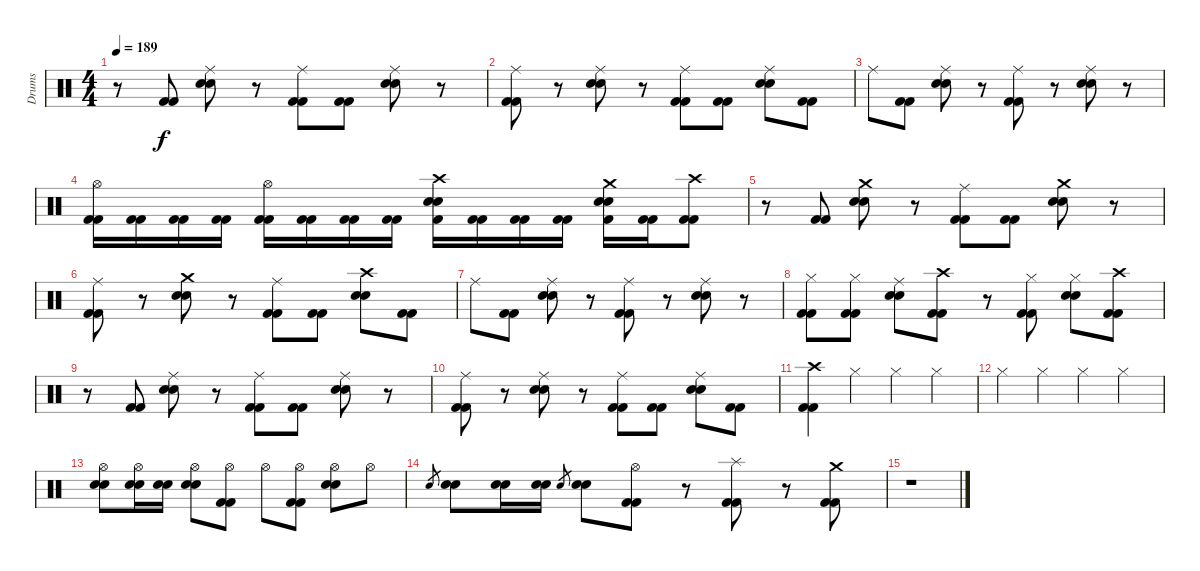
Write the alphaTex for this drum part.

\track ("Drums" "Drums") {instrument percussion}
\staff {score}
\articulation defaults
\ts (4 4)
\tempo 189
\clef neutral
\ks c
r.8{dy f} ("Kick (hit) 2" "Kick (hit) 2").8 ("Ride (middle)" "Snare (hit) 2" "Snare (hit) 2").8 r.8 ("Ride (middle)" "Kick (hit) 2" "Kick (hit) 2").8 ("Kick (hit) 2" "Kick (hit) 2").8 ("Ride (middle)" "Snare (hit) 2" "Snare (hit) 2").8 r.8 |
("Ride (middle)" "Kick (hit) 2" "Kick (hit) 2").8 r.8 ("Ride (middle)" "Snare (hit) 2" "Snare (hit) 2").8 r.8 ("Ride (middle)" "Kick (hit) 2" "Kick (hit) 2").8 ("Kick (hit) 2" "Kick (hit) 2").8 ("Ride (middle)" "Snare (hit) 2" "Snare (hit) 2").8 ("Kick (hit) 2" "Kick (hit) 2").8 |
"Ride (middle)".8 ("Kick (hit) 2" "Kick (hit) 2").8 ("Ride (middle)" "Snare (hit) 2" "Snare (hit) 2").8 r.8 ("Ride (middle)" "Kick (hit) 2" "Kick (hit) 2").8 r.8 ("Ride (middle)" "Snare (hit) 2" "Snare (hit) 2").8 r.8 |
("Hi-Hat (open)" "Kick (hit) 2" "Kick (hit) 2").16 ("Kick (hit) 2" "Kick (hit) 2").16 ("Kick (hit) 2" "Kick (hit) 2").16 ("Kick (hit) 2" "Kick (hit) 2").16 ("Hi-Hat (open)" "Kick (hit) 2" "Kick (hit) 2").16 ("Kick (hit) 2" "Kick (hit) 2").16 ("Kick (hit) 2" "Kick (hit) 2").16 ("Kick (hit) 2" "Kick (hit) 2").16 ("Crash high (hit)" "Snare (hit) 2" "Snare (hit) 2" "Kick (hit) 2").16 ("Kick (hit) 2" "Kick (hit) 2").16 ("Kick (hit) 2" "Kick (hit) 2").16 ("Kick (hit) 2" "Kick (hit) 2").16 ("Crash medium (hit)" "Snare (hit) 2" "Snare (hit) 2" "Kick (hit) 2").16 ("Kick (hit) 2" "Kick (hit) 2").16 ("Crash high (hit)" "Kick (hit) 2" "Kick (hit) 2").8 |
r.8 ("Kick (hit) 2" "Kick (hit) 2").8 ("Crash medium (hit)" "Snare (hit) 2" "Snare (hit) 2").8 r.8 ("Ride (middle)" "Kick (hit) 2" "Kick (hit) 2").8 ("Kick (hit) 2" "Kick (hit) 2").8 ("Crash medium (hit)" "Snare (hit) 2" "Snare (hit) 2").8 r.8 |
("Ride (middle)" "Kick (hit) 2" "Kick (hit) 2").8 r.8 ("Crash medium (hit)" "Snare (hit) 2" "Snare (hit) 2").8 r.8 ("Ride (middle)" "Kick (hit) 2" "Kick (hit) 2").8 ("Kick (hit) 2" "Kick (hit) 2").8 ("Crash high (hit)" "Snare (hit) 2" "Snare (hit) 2").8 ("Kick (hit) 2" "Kick (hit) 2").8 |
"Ride (middle)".8 ("Kick (hit) 2" "Kick (hit) 2").8 ("Ride (middle)" "Snare (hit) 2" "Snare (hit) 2").8 r.8 ("Ride (middle)" "Kick (hit) 2" "Kick (hit) 2").8 r.8 ("Ride (middle)" "Snare (hit) 2" "Snare (hit) 2").8 r.8 |
("Hi-Hat (closed)" "Kick (hit) 2" "Kick (hit) 2").8 ("Hi-Hat (closed)" "Kick (hit) 2" "Kick (hit) 2").8 ("Ride (middle)" "Snare (hit) 2" "Snare (hit) 2").8 ("Crash high (hit)" "Kick (hit) 2" "Kick (hit) 2").8 r.8 ("Hi-Hat (closed)" "Kick (hit) 2" "Kick (hit) 2").8 ("Hi-Hat (closed)" "Snare (hit) 2" "Snare (hit) 2").8 ("Crash high (hit)" "Kick (hit) 2" "Kick (hit) 2").8 |
r.8 ("Kick (hit) 2" "Kick (hit) 2").8 ("Ride (middle)" "Snare (hit) 2" "Snare (hit) 2").8 r.8 ("Ride (middle)" "Kick (hit) 2" "Kick (hit) 2").8 ("Kick (hit) 2" "Kick (hit) 2").8 ("Ride (middle)" "Snare (hit) 2" "Snare (hit) 2").8 r.8 |
("Ride (middle)" "Kick (hit) 2" "Kick (hit) 2").8 r.8 ("Ride (middle)" "Snare (hit) 2" "Snare (hit) 2").8 r.8 ("Ride (middle)" "Kick (hit) 2" "Kick (hit) 2").8 ("Kick (hit) 2" "Kick (hit) 2").8 ("Ride (middle)" "Snare (hit) 2" "Snare (hit) 2").8 ("Kick (hit) 2" "Kick (hit) 2").8 |
("Crash high (hit)" "Kick (hit) 2" "Kick (hit) 2").4 "Hi-Hat (closed)".4 "Hi-Hat (closed)".4 "Hi-Hat (closed)".4 |
"Hi-Hat (closed)".4 "Hi-Hat (closed)".4 "Hi-Hat (closed)".4 "Hi-Hat (closed)".4 |
("Hi-Hat (open)" "Snare (hit) 2" "Snare (hit) 2").8 ("Hi-Hat (open)" "Snare (hit) 2" "Snare (hit) 2").16 ("Snare (hit) 2" "Snare (hit) 2").16 ("Hi-Hat (open)" "Snare (hit) 2" "Snare (hit) 2").8 ("Hi-Hat (open)" "Kick (hit) 2" "Kick (hit) 2").8 "Hi-Hat (open)".8 ("Hi-Hat (open)" "Kick (hit) 2" "Kick (hit) 2").8 ("Hi-Hat (open)" "Snare (hit) 2" "Snare (hit) 2").8 "Hi-Hat (open)".8 |
"Snare (hit) 2".8{gr} ("Snare (hit) 2" "Snare (hit) 2").8 ("Snare (hit) 2" "Snare (hit) 2").16 ("Snare (hit) 2" "Snare (hit) 2").16 "Snare (hit) 2".8{gr} ("Snare (hit) 2" "Snare (hit) 2").8 ("Hi-Hat (open)" "Kick (hit) 2" "Kick (hit) 2").8 r.8 ("Splash (hit)" "Kick (hit) 2" "Kick (hit) 2").8 r.8 ("Crash medium (hit)" "Kick (hit) 2" "Kick (hit) 2").8 |
r.1
